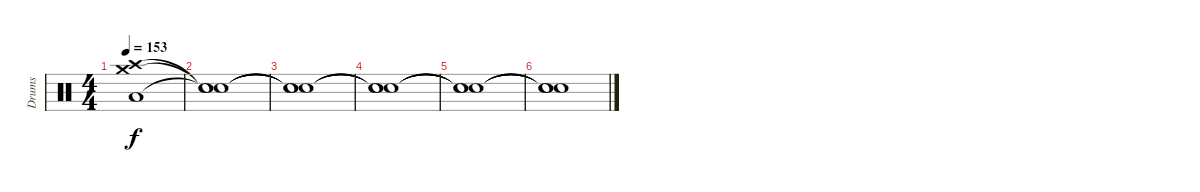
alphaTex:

\track ("Drums" "Drums") {instrument percussion}
\staff {score}
\articulation defaults
\ts (4 4)
\tempo 153
\clef neutral
\ks c
("Crash medium (hit)" "Crash high (hit)" "Low Floor Tom (hit)").1{dy f} |
("Snare (hit)"{t} "Snare (hit)"{t} "Snare (hit)"{t}).1 |
("Snare (hit)"{t} "Snare (hit)"{t} "Snare (hit)"{t}).1{volume 7} |
("Snare (hit)"{t} "Snare (hit)"{t} "Snare (hit)"{t}).1{volume 6} |
("Snare (hit)"{t} "Snare (hit)"{t} "Snare (hit)"{t}).1{volume 0} |
("Snare (hit)"{t} "Snare (hit)"{t} "Snare (hit)"{t}).1
